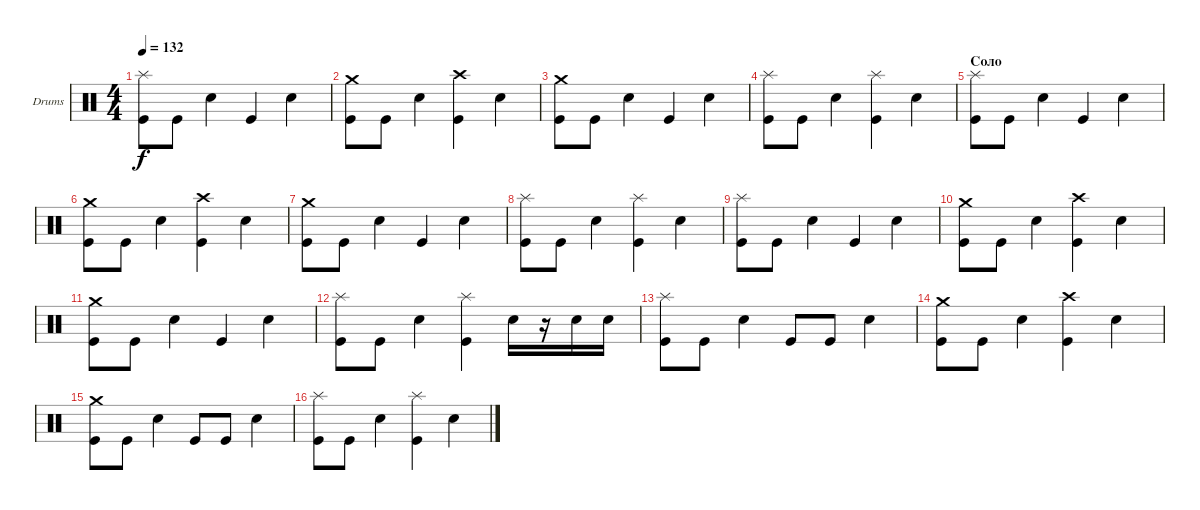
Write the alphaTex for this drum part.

\bracketExtendMode groupsimilarinstruments
\firstSystemTrackNameOrientation horizontal
\otherSystemsTrackNameOrientation horizontal
\track ("Александр Львов" "Drums") {instrument percussion}
\staff {score}
\articulation defaults
\ts (4 4)
\tempo 132
\clef neutral
\ks c
("Kick (hit)" "Splash (hit)").8{dy f} "Kick (hit)".8 "Snare (hit) 2".4 "Kick (hit)".4 "Snare (hit) 2".4 |
("Kick (hit)" "Crash medium (hit)").8 "Kick (hit)".8 "Snare (hit) 2".4 ("Kick (hit)" "Crash high (hit)").4 "Snare (hit) 2".4 |
("Kick (hit)" "Crash medium (hit)").8 "Kick (hit)".8 "Snare (hit) 2".4 "Kick (hit)".4 "Snare (hit) 2".4 |
("Kick (hit)" "Splash (hit)").8 "Kick (hit)".8 "Snare (hit) 2".4 ("Kick (hit)" "Splash (hit)").4 "Snare (hit) 2".4 |
\section ("" "Соло")
("Kick (hit)" "Splash (hit)").8 "Kick (hit)".8 "Snare (hit) 2".4 "Kick (hit)".4 "Snare (hit) 2".4 |
("Kick (hit)" "Crash medium (hit)").8 "Kick (hit)".8 "Snare (hit) 2".4 ("Kick (hit)" "Crash high (hit)").4 "Snare (hit) 2".4 |
("Kick (hit)" "Crash medium (hit)").8 "Kick (hit)".8 "Snare (hit) 2".4 "Kick (hit)".4 "Snare (hit) 2".4 |
("Kick (hit)" "Splash (hit)").8 "Kick (hit)".8 "Snare (hit) 2".4 ("Kick (hit)" "Splash (hit)").4 "Snare (hit) 2".4 |
("Kick (hit)" "Splash (hit)").8 "Kick (hit)".8 "Snare (hit) 2".4 "Kick (hit)".4 "Snare (hit) 2".4 |
("Kick (hit)" "Crash medium (hit)").8 "Kick (hit)".8 "Snare (hit) 2".4 ("Kick (hit)" "Crash high (hit)").4 "Snare (hit) 2".4 |
("Kick (hit)" "Crash medium (hit)").8 "Kick (hit)".8 "Snare (hit) 2".4 "Kick (hit)".4 "Snare (hit) 2".4 |
("Kick (hit)" "Splash (hit)").8 "Kick (hit)".8 "Snare (hit) 2".4 ("Kick (hit)" "Splash (hit)").4 "Snare (hit) 2".16 r.16 "Snare (hit) 2".16 "Snare (hit) 2".16 |
("Kick (hit)" "Splash (hit)").8 "Kick (hit)".8 "Snare (hit) 2".4 "Kick (hit)".8 "Kick (hit)".8 "Snare (hit) 2".4 |
("Kick (hit)" "Crash medium (hit)").8 "Kick (hit)".8 "Snare (hit) 2".4 ("Kick (hit)" "Crash high (hit)").4 "Snare (hit) 2".4 |
("Kick (hit)" "Crash medium (hit)").8 "Kick (hit)".8 "Snare (hit) 2".4 "Kick (hit)".8 "Kick (hit)".8 "Snare (hit) 2".4 |
("Kick (hit)" "Splash (hit)").8 "Kick (hit)".8 "Snare (hit) 2".4 ("Kick (hit)" "Splash (hit)").4 "Snare (hit) 2".4
